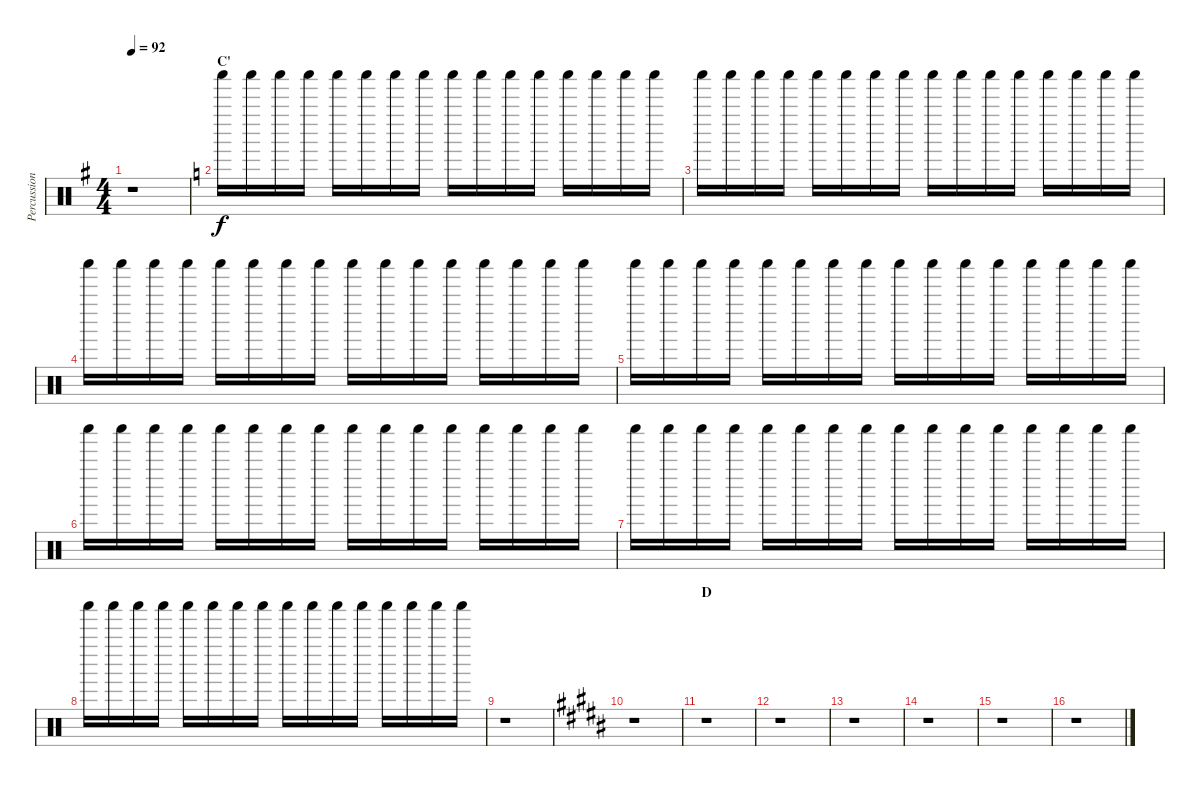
\track ("Percussions" "Percussion") {instrument percussion}
\staff {score}
\articulation defaults
\ts (4 4)
\tempo 92
\clef neutral
\ks g
r.1{dy f} |
\section ("" "C'")
\ks c "Shaker (hit)".16 "Shaker (hit)".16 "Shaker (hit)".16 "Shaker (hit)".16 "Shaker (hit)".16 "Shaker (hit)".16 "Shaker (hit)".16 "Shaker (hit)".16 "Shaker (hit)".16 "Shaker (hit)".16 "Shaker (hit)".16 "Shaker (hit)".16 "Shaker (hit)".16 "Shaker (hit)".16 "Shaker (hit)".16 "Shaker (hit)".16
|
"Shaker (hit)".16 "Shaker (hit)".16 "Shaker (hit)".16 "Shaker (hit)".16 "Shaker (hit)".16 "Shaker (hit)".16 "Shaker (hit)".16 "Shaker (hit)".16 "Shaker (hit)".16 "Shaker (hit)".16 "Shaker (hit)".16 "Shaker (hit)".16 "Shaker (hit)".16 "Shaker (hit)".16 "Shaker (hit)".16 "Shaker (hit)".16 |
"Shaker (hit)".16 "Shaker (hit)".16 "Shaker (hit)".16 "Shaker (hit)".16 "Shaker (hit)".16 "Shaker (hit)".16 "Shaker (hit)".16 "Shaker (hit)".16 "Shaker (hit)".16 "Shaker (hit)".16 "Shaker (hit)".16 "Shaker (hit)".16 "Shaker (hit)".16 "Shaker (hit)".16 "Shaker (hit)".16 "Shaker (hit)".16 |
"Shaker (hit)".16 "Shaker (hit)".16 "Shaker (hit)".16 "Shaker (hit)".16 "Shaker (hit)".16 "Shaker (hit)".16 "Shaker (hit)".16 "Shaker (hit)".16 "Shaker (hit)".16 "Shaker (hit)".16 "Shaker (hit)".16 "Shaker (hit)".16 "Shaker (hit)".16 "Shaker (hit)".16 "Shaker (hit)".16 "Shaker (hit)".16 |
"Shaker (hit)".16 "Shaker (hit)".16 "Shaker (hit)".16 "Shaker (hit)".16 "Shaker (hit)".16 "Shaker (hit)".16 "Shaker (hit)".16 "Shaker (hit)".16 "Shaker (hit)".16 "Shaker (hit)".16 "Shaker (hit)".16 "Shaker (hit)".16 "Shaker (hit)".16 "Shaker (hit)".16 "Shaker (hit)".16 "Shaker (hit)".16 |
"Shaker (hit)".16 "Shaker (hit)".16 "Shaker (hit)".16 "Shaker (hit)".16 "Shaker (hit)".16 "Shaker (hit)".16 "Shaker (hit)".16 "Shaker (hit)".16 "Shaker (hit)".16 "Shaker (hit)".16 "Shaker (hit)".16 "Shaker (hit)".16 "Shaker (hit)".16 "Shaker (hit)".16 "Shaker (hit)".16 "Shaker (hit)".16 |
"Shaker (hit)".16 "Shaker (hit)".16 "Shaker (hit)".16 "Shaker (hit)".16 "Shaker (hit)".16 "Shaker (hit)".16 "Shaker (hit)".16 "Shaker (hit)".16 "Shaker (hit)".16 "Shaker (hit)".16 "Shaker (hit)".16 "Shaker (hit)".16 "Shaker (hit)".16 "Shaker (hit)".16 "Shaker (hit)".16 "Shaker (hit)".16 |
r.1 |
\ks b
r.1 |
\section ("" "D")
r.1 |
r.1 |
r.1 |
r.1 |
r.1 |
r.1
